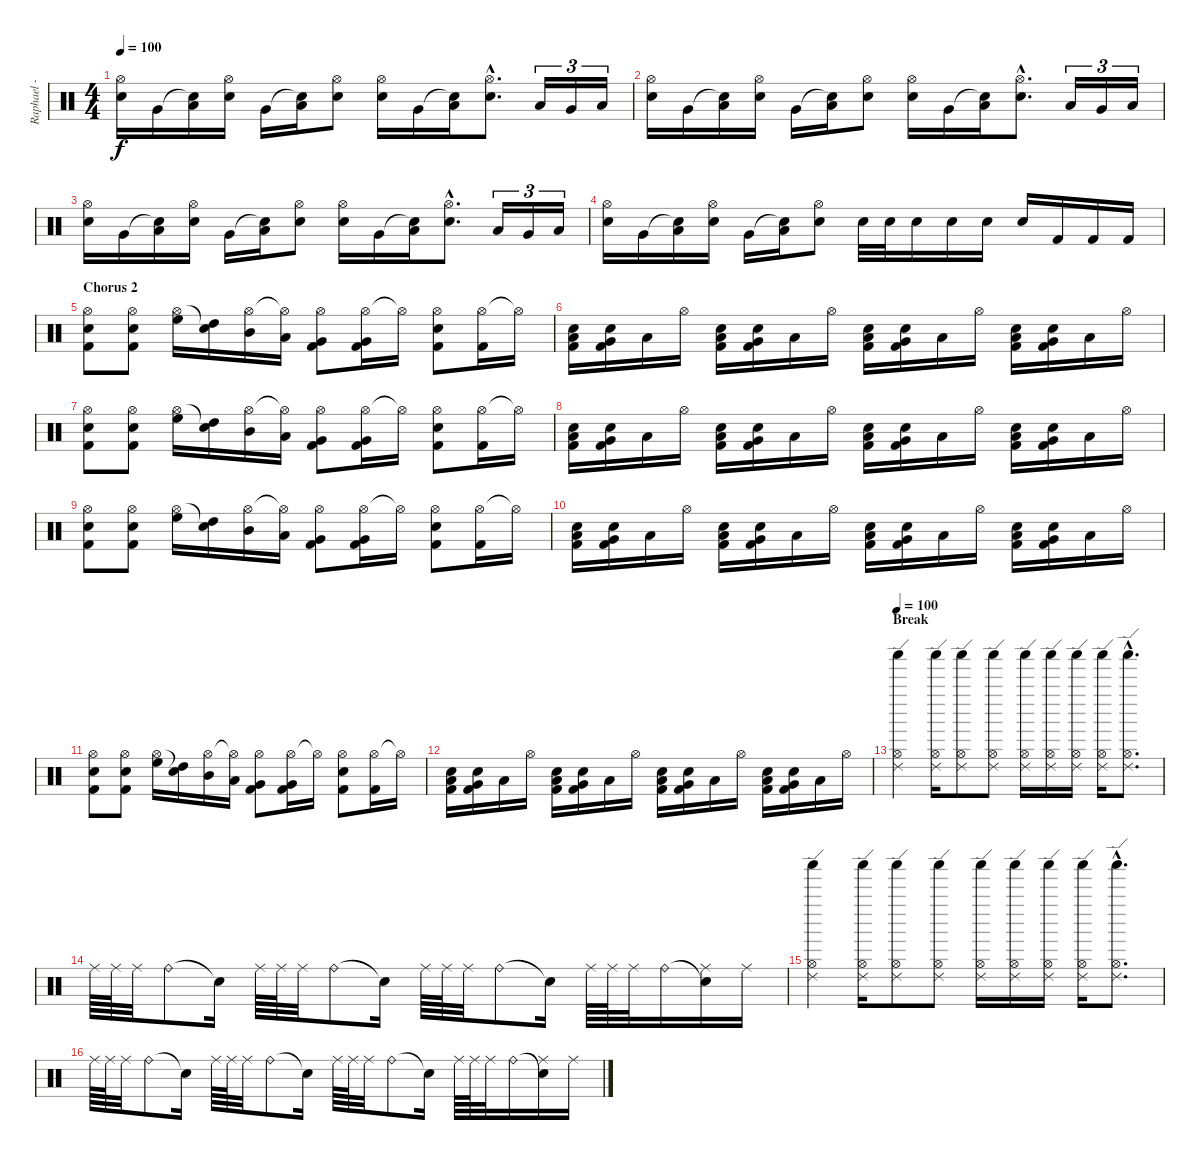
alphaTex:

\track ("Raphael - Batterie" "Raphael - ") {instrument percussion}
\staff {score}
\articulation defaults
\ts (4 4)
\tempo 100
\clef neutral
\ks c
("Hi-Hat (open)" "Electric Snare (hit)").16{dy f} "Very Low Tom (hit)".16 ("Snare (hit)"{t} "Low Floor Tom (hit)").16 ("Hi-Hat (open)" "Electric Snare (hit)").16 "Very Low Tom (hit)".16 ("Snare (hit)"{t} "Low Floor Tom (hit)").16 ("Hi-Hat (open)" "Electric Snare (hit)").8 ("Hi-Hat (open)" "Electric Snare (hit)").16 "Very Low Tom (hit)".16 ("Snare (hit)"{t} "Low Floor Tom (hit)").16 ("Hi-Hat (open)"{hac} "Electric Snare (hit)"{hac}).8{d} "Low Tom (hit)".16{tu (3 2)} "Very Low Tom (hit)".16{tu (3 2)} "Low Floor Tom (hit)".16{tu (3 2)} |
("Hi-Hat (open)" "Electric Snare (hit)").16 "Very Low Tom (hit)".16 ("Snare (hit)"{t} "Low Floor Tom (hit)").16 ("Hi-Hat (open)" "Electric Snare (hit)").16 "Very Low Tom (hit)".16 ("Snare (hit)"{t} "Low Floor Tom (hit)").16 ("Hi-Hat (open)" "Electric Snare (hit)").8 ("Hi-Hat (open)" "Electric Snare (hit)").16 "Very Low Tom (hit)".16 ("Snare (hit)"{t} "Low Floor Tom (hit)").16 ("Hi-Hat (open)"{hac} "Electric Snare (hit)"{hac}).8{d} "Low Tom (hit)".16{tu (3 2)} "Very Low Tom (hit)".16{tu (3 2)} "Low Floor Tom (hit)".16{tu (3 2)} |
("Hi-Hat (open)" "Electric Snare (hit)").16 "Very Low Tom (hit)".16 ("Snare (hit)"{t} "Low Floor Tom (hit)").16 ("Hi-Hat (open)" "Electric Snare (hit)").16 "Very Low Tom (hit)".16 ("Snare (hit)"{t} "Low Floor Tom (hit)").16 ("Hi-Hat (open)" "Electric Snare (hit)").8 ("Hi-Hat (open)" "Electric Snare (hit)").16 "Very Low Tom (hit)".16 ("Snare (hit)"{t} "Low Floor Tom (hit)").16 ("Hi-Hat (open)"{hac} "Electric Snare (hit)"{hac}).8{d} "Low Tom (hit)".16{tu (3 2)} "Very Low Tom (hit)".16{tu (3 2)} "Low Floor Tom (hit)".16{tu (3 2)} |
("Hi-Hat (open)" "Electric Snare (hit)").16 "Very Low Tom (hit)".16 ("Snare (hit)"{t} "Low Floor Tom (hit)").16 ("Hi-Hat (open)" "Electric Snare (hit)").16 "Very Low Tom (hit)".16 ("Snare (hit)"{t} "Low Floor Tom (hit)").16 ("Hi-Hat (open)" "Electric Snare (hit)").8 "Snare (hit) 2".32 "Snare (hit) 2".32 "Electric Snare (hit)".16 "Electric Snare (hit)".16 "Electric Snare (hit)".16 "Electric Snare (hit)".16 "Kick (hit) 2".16 "Kick (hit) 2".16 "Kick (hit) 2".16 |
\section ("" "Chorus 2")
("Hi-Hat (open)" "Electric Snare (hit)" "Kick (hit) 2").8 ("Hi-Hat (open)" "Electric Snare (hit)" "Kick (hit) 2").8 ("Hi-Hat (open)" "High Floor Tom (hit)").16 ("Snare (hit)"{t} "High Tom (hit)").16 ("Hi-Hat (open)" "Mid Tom (hit)").16 ("Hi-Hat (open)"{t} "Low Tom (hit)").16 ("Hi-Hat (open)" "Very Low Tom (hit)" "Kick (hit) 2").8 ("Hi-Hat (open)" "Very Low Tom (hit)" "Kick (hit) 2").16 "Hi-Hat (open)"{t}.16 ("Hi-Hat (open)" "Snare (hit) 2" "Kick (hit) 2").8 ("Hi-Hat (open)" "Kick (hit) 2").16 "Hi-Hat (open)"{t}.16 |
("Low Tom (hit)" "Electric Snare (hit)" "Kick (hit) 2").16 ("Very Low Tom (hit)" "Electric Snare (hit)" "Kick (hit) 2").16 "Low Floor Tom (hit)".16 "Hi-Hat (open)".16 ("Low Tom (hit)" "Electric Snare (hit)" "Kick (hit) 2").16 ("Very Low Tom (hit)" "Electric Snare (hit)" "Kick (hit) 2").16 "Low Floor Tom (hit)".16 "Hi-Hat (open)".16 ("Low Tom (hit)" "Electric Snare (hit)" "Kick (hit) 2").16 ("Very Low Tom (hit)" "Electric Snare (hit)" "Kick (hit) 2").16 "Low Floor Tom (hit)".16 "Hi-Hat (open)".16 ("Low Tom (hit)" "Electric Snare (hit)" "Kick (hit) 2").16 ("Very Low Tom (hit)" "Electric Snare (hit)" "Kick (hit) 2").16 "Low Floor Tom (hit)".16 "Hi-Hat (open)".16 |
("Hi-Hat (open)" "Electric Snare (hit)" "Kick (hit) 2").8 ("Hi-Hat (open)" "Electric Snare (hit)" "Kick (hit) 2").8 ("Hi-Hat (open)" "High Floor Tom (hit)").16 ("Snare (hit)"{t} "High Tom (hit)").16 ("Hi-Hat (open)" "Mid Tom (hit)").16 ("Hi-Hat (open)"{t} "Low Tom (hit)").16 ("Hi-Hat (open)" "Very Low Tom (hit)" "Kick (hit) 2").8 ("Hi-Hat (open)" "Very Low Tom (hit)" "Kick (hit) 2").16 "Hi-Hat (open)"{t}.16 ("Hi-Hat (open)" "Snare (hit) 2" "Kick (hit) 2").8 ("Hi-Hat (open)" "Kick (hit) 2").16 "Hi-Hat (open)"{t}.16 |
("Low Tom (hit)" "Electric Snare (hit)" "Kick (hit) 2").16 ("Very Low Tom (hit)" "Electric Snare (hit)" "Kick (hit) 2").16 "Low Floor Tom (hit)".16 "Hi-Hat (open)".16 ("Low Tom (hit)" "Electric Snare (hit)" "Kick (hit) 2").16 ("Very Low Tom (hit)" "Electric Snare (hit)" "Kick (hit) 2").16 "Low Floor Tom (hit)".16 "Hi-Hat (open)".16 ("Low Tom (hit)" "Electric Snare (hit)" "Kick (hit) 2").16 ("Very Low Tom (hit)" "Electric Snare (hit)" "Kick (hit) 2").16 "Low Floor Tom (hit)".16 "Hi-Hat (open)".16 ("Low Tom (hit)" "Electric Snare (hit)" "Kick (hit) 2").16 ("Very Low Tom (hit)" "Electric Snare (hit)" "Kick (hit) 2").16 "Low Floor Tom (hit)".16 "Hi-Hat (open)".16 |
("Hi-Hat (open)" "Electric Snare (hit)" "Kick (hit) 2").8 ("Hi-Hat (open)" "Electric Snare (hit)" "Kick (hit) 2").8 ("Hi-Hat (open)" "High Floor Tom (hit)").16 ("Snare (hit)"{t} "High Tom (hit)").16 ("Hi-Hat (open)" "Mid Tom (hit)").16 ("Hi-Hat (open)"{t} "Low Tom (hit)").16 ("Hi-Hat (open)" "Very Low Tom (hit)" "Kick (hit) 2").8 ("Hi-Hat (open)" "Very Low Tom (hit)" "Kick (hit) 2").16 "Hi-Hat (open)"{t}.16 ("Hi-Hat (open)" "Snare (hit) 2" "Kick (hit) 2").8 ("Hi-Hat (open)" "Kick (hit) 2").16 "Hi-Hat (open)"{t}.16 |
("Low Tom (hit)" "Electric Snare (hit)" "Kick (hit) 2").16 ("Very Low Tom (hit)" "Electric Snare (hit)" "Kick (hit) 2").16 "Low Floor Tom (hit)".16 "Hi-Hat (open)".16 ("Low Tom (hit)" "Electric Snare (hit)" "Kick (hit) 2").16 ("Very Low Tom (hit)" "Electric Snare (hit)" "Kick (hit) 2").16 "Low Floor Tom (hit)".16 "Hi-Hat (open)".16 ("Low Tom (hit)" "Electric Snare (hit)" "Kick (hit) 2").16 ("Very Low Tom (hit)" "Electric Snare (hit)" "Kick (hit) 2").16 "Low Floor Tom (hit)".16 "Hi-Hat (open)".16 ("Low Tom (hit)" "Electric Snare (hit)" "Kick (hit) 2").16 ("Very Low Tom (hit)" "Electric Snare (hit)" "Kick (hit) 2").16 "Low Floor Tom (hit)".16 "Hi-Hat (open)".16 |
("Hi-Hat (open)" "Electric Snare (hit)" "Kick (hit) 2").8 ("Hi-Hat (open)" "Electric Snare (hit)" "Kick (hit) 2").8 ("Hi-Hat (open)" "High Floor Tom (hit)").16 ("Snare (hit)"{t} "High Tom (hit)").16 ("Hi-Hat (open)" "Mid Tom (hit)").16 ("Hi-Hat (open)"{t} "Low Tom (hit)").16 ("Hi-Hat (open)" "Very Low Tom (hit)" "Kick (hit) 2").8 ("Hi-Hat (open)" "Very Low Tom (hit)" "Kick (hit) 2").16 "Hi-Hat (open)"{t}.16 ("Hi-Hat (open)" "Snare (hit) 2" "Kick (hit) 2").8 ("Hi-Hat (open)" "Kick (hit) 2").16 "Hi-Hat (open)"{t}.16 |
("Low Tom (hit)" "Electric Snare (hit)" "Kick (hit) 2").16 ("Very Low Tom (hit)" "Electric Snare (hit)" "Kick (hit) 2").16 "Low Floor Tom (hit)".16 "Hi-Hat (open)".16 ("Low Tom (hit)" "Electric Snare (hit)" "Kick (hit) 2").16 ("Very Low Tom (hit)" "Electric Snare (hit)" "Kick (hit) 2").16 "Low Floor Tom (hit)".16 "Hi-Hat (open)".16 ("Low Tom (hit)" "Electric Snare (hit)" "Kick (hit) 2").16 ("Very Low Tom (hit)" "Electric Snare (hit)" "Kick (hit) 2").16 "Low Floor Tom (hit)".16 "Hi-Hat (open)".16 ("Low Tom (hit)" "Electric Snare (hit)" "Kick (hit) 2").16 ("Very Low Tom (hit)" "Electric Snare (hit)" "Kick (hit) 2").16 "Low Floor Tom (hit)".16 "Hi-Hat (open)".16 |
\section ("" "Break")
\tempo 100
("Hi-Hat (open)" "Ride (edge) 2" "Shaker (hit)").4 ("Hi-Hat (open)" "Ride (edge) 2" "Shaker (hit)").16 ("Hi-Hat (open)" "Ride (edge) 2" "Shaker (hit)").8 ("Hi-Hat (open)" "Ride (edge) 2" "Shaker (hit)").8 ("Hi-Hat (open)" "Ride (edge) 2" "Shaker (hit)").16 ("Hi-Hat (open)" "Ride (edge) 2" "Shaker (hit)").16 ("Hi-Hat (open)" "Ride (edge) 2" "Shaker (hit)").16 ("Hi-Hat (open)" "Ride (edge) 2" "Shaker (hit)").16 ("Hi-Hat (open)"{hac} "Ride (edge) 2"{hac} "Shaker (hit)"{hac}).8{d} |
"Ride (middle)".64 "Ride (middle)".64 "Ride (middle)".32 "Ride (bell)".8 "Snare (hit)"{t}.16 "Ride (middle)".64 "Ride (middle)".64 "Ride (middle)".32 "Ride (bell)".8 "Snare (hit)"{t}.16 "Ride (middle)".64 "Ride (middle)".64 "Ride (middle)".32 "Ride (bell)".8 "Snare (hit)"{t}.16 "Ride (middle)".64 "Ride (middle)".64 "Ride (middle)".32 "Ride (bell)".16 ("Snare (hit)"{t} "Ride (middle)").16 "Ride (middle)".16 |
("Hi-Hat (open)" "Ride (edge) 2" "Shaker (hit)").4 ("Hi-Hat (open)" "Ride (edge) 2" "Shaker (hit)").16 ("Hi-Hat (open)" "Ride (edge) 2" "Shaker (hit)").8 ("Hi-Hat (open)" "Ride (edge) 2" "Shaker (hit)").8 ("Hi-Hat (open)" "Ride (edge) 2" "Shaker (hit)").16 ("Hi-Hat (open)" "Ride (edge) 2" "Shaker (hit)").16 ("Hi-Hat (open)" "Ride (edge) 2" "Shaker (hit)").16 ("Hi-Hat (open)" "Ride (edge) 2" "Shaker (hit)").16 ("Hi-Hat (open)"{hac} "Ride (edge) 2"{hac} "Shaker (hit)"{hac}).8{d} |
"Ride (middle)".64 "Ride (middle)".64 "Ride (middle)".32 "Ride (bell)".8 "Snare (hit)"{t}.16 "Ride (middle)".64 "Ride (middle)".64 "Ride (middle)".32 "Ride (bell)".8 "Snare (hit)"{t}.16 "Ride (middle)".64 "Ride (middle)".64 "Ride (middle)".32 "Ride (bell)".8 "Snare (hit)"{t}.16 "Ride (middle)".64 "Ride (middle)".64 "Ride (middle)".32 "Ride (bell)".16 ("Snare (hit)"{t} "Ride (middle)").16 "Ride (middle)".16
